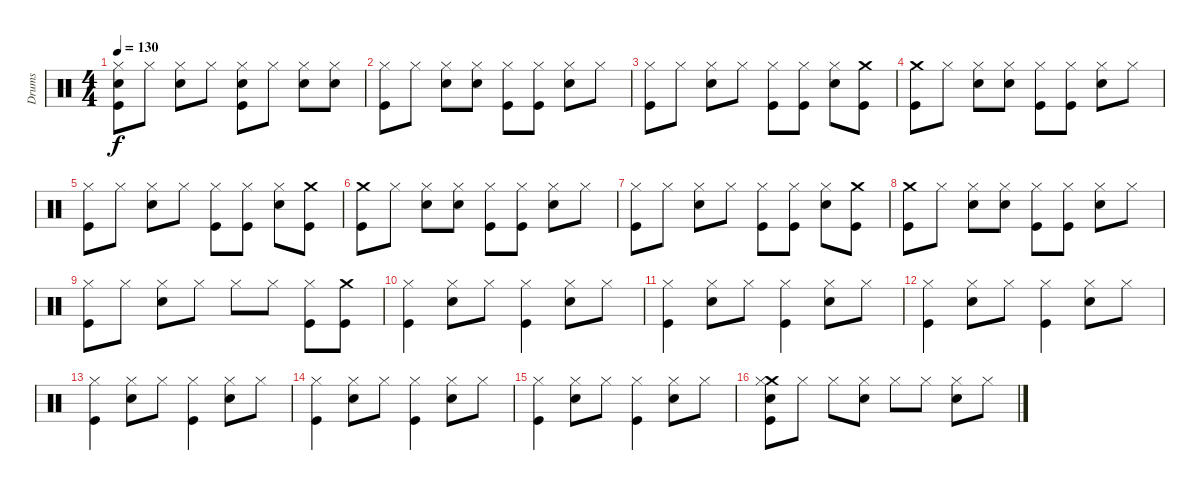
\track ("Drums" "Drums") {instrument percussion}
\staff {score}
\articulation defaults
\ts (4 4)
\tempo 130
\clef neutral
\ks c
("Snare (hit) 2" "Hi-Hat (closed)" "Kick (hit)").8{dy f} "Hi-Hat (closed)".8 ("Snare (hit) 2" "Hi-Hat (closed)").8 "Hi-Hat (closed)".8 ("Snare (hit) 2" "Hi-Hat (closed)" "Kick (hit)").8 "Hi-Hat (closed)".8 ("Snare (hit) 2" "Hi-Hat (closed)").8 ("Snare (hit) 2" "Hi-Hat (closed)").8 |
("Hi-Hat (closed)" "Kick (hit)").8 "Hi-Hat (closed)".8 ("Snare (hit) 2" "Hi-Hat (closed)").8 ("Snare (hit) 2" "Hi-Hat (closed)").8 ("Hi-Hat (closed)" "Kick (hit)").8 ("Hi-Hat (closed)" "Kick (hit)").8 ("Snare (hit) 2" "Hi-Hat (closed)").8 "Hi-Hat (closed)".8 |
("Hi-Hat (closed)" "Kick (hit)").8 "Hi-Hat (closed)".8 ("Snare (hit) 2" "Hi-Hat (closed)").8 "Hi-Hat (closed)".8 ("Hi-Hat (closed)" "Kick (hit)").8 ("Hi-Hat (closed)" "Kick (hit)").8 ("Snare (hit) 2" "Hi-Hat (closed)").8 ("Crash medium (hit)" "Kick (hit)").8 |
("Crash medium (hit)" "Kick (hit)").8 "Hi-Hat (closed)".8 ("Snare (hit) 2" "Hi-Hat (closed)").8 ("Snare (hit) 2" "Hi-Hat (closed)").8 ("Hi-Hat (closed)" "Kick (hit)").8 ("Hi-Hat (closed)" "Kick (hit)").8 ("Snare (hit) 2" "Hi-Hat (closed)").8 "Hi-Hat (closed)".8 |
("Hi-Hat (closed)" "Kick (hit)").8 "Hi-Hat (closed)".8 ("Snare (hit) 2" "Hi-Hat (closed)").8 "Hi-Hat (closed)".8 ("Hi-Hat (closed)" "Kick (hit)").8 ("Hi-Hat (closed)" "Kick (hit)").8 ("Snare (hit) 2" "Hi-Hat (closed)").8 ("Crash medium (hit)" "Kick (hit)").8 |
("Crash medium (hit)" "Kick (hit)").8 "Hi-Hat (closed)".8 ("Snare (hit) 2" "Hi-Hat (closed)").8 ("Snare (hit) 2" "Hi-Hat (closed)").8 ("Hi-Hat (closed)" "Kick (hit)").8 ("Hi-Hat (closed)" "Kick (hit)").8 ("Snare (hit) 2" "Hi-Hat (closed)").8 "Hi-Hat (closed)".8 |
("Hi-Hat (closed)" "Kick (hit)").8 "Hi-Hat (closed)".8 ("Snare (hit) 2" "Hi-Hat (closed)").8 "Hi-Hat (closed)".8 ("Hi-Hat (closed)" "Kick (hit)").8 ("Hi-Hat (closed)" "Kick (hit)").8 ("Snare (hit) 2" "Hi-Hat (closed)").8 ("Crash medium (hit)" "Kick (hit)").8 |
("Crash medium (hit)" "Kick (hit)").8 "Hi-Hat (closed)".8 ("Snare (hit) 2" "Hi-Hat (closed)").8 ("Snare (hit) 2" "Hi-Hat (closed)").8 ("Hi-Hat (closed)" "Kick (hit)").8 ("Hi-Hat (closed)" "Kick (hit)").8 ("Snare (hit) 2" "Hi-Hat (closed)").8 "Hi-Hat (closed)".8 |
("Hi-Hat (closed)" "Kick (hit)").8 "Hi-Hat (closed)".8 ("Snare (hit) 2" "Hi-Hat (closed)").8 "Hi-Hat (closed)".8 "Hi-Hat (closed)".8 "Hi-Hat (closed)".8 ("Hi-Hat (closed)" "Kick (hit)").8 ("Crash medium (hit)" "Kick (hit)").8 |
("Hi-Hat (closed)" "Kick (hit)").4 ("Snare (hit) 2" "Hi-Hat (closed)").8 "Hi-Hat (closed)".8 ("Hi-Hat (closed)" "Kick (hit)").4 ("Snare (hit) 2" "Hi-Hat (closed)").8 "Hi-Hat (closed)".8 |
("Hi-Hat (closed)" "Kick (hit)").4 ("Snare (hit) 2" "Hi-Hat (closed)").8 "Hi-Hat (closed)".8 ("Hi-Hat (closed)" "Kick (hit)").4 ("Snare (hit) 2" "Hi-Hat (closed)").8 "Hi-Hat (closed)".8 |
("Hi-Hat (closed)" "Kick (hit)").4 ("Snare (hit) 2" "Hi-Hat (closed)").8 "Hi-Hat (closed)".8 ("Hi-Hat (closed)" "Kick (hit)").4 ("Snare (hit) 2" "Hi-Hat (closed)").8 "Hi-Hat (closed)".8 |
("Hi-Hat (closed)" "Kick (hit)").4 ("Snare (hit) 2" "Hi-Hat (closed)").8 "Hi-Hat (closed)".8 ("Hi-Hat (closed)" "Kick (hit)").4 ("Snare (hit) 2" "Hi-Hat (closed)").8 "Hi-Hat (closed)".8 |
("Hi-Hat (closed)" "Kick (hit)").4 ("Snare (hit) 2" "Hi-Hat (closed)").8 "Hi-Hat (closed)".8 ("Hi-Hat (closed)" "Kick (hit)").4 ("Snare (hit) 2" "Hi-Hat (closed)").8 "Hi-Hat (closed)".8 |
("Hi-Hat (closed)" "Kick (hit)").4 ("Snare (hit) 2" "Hi-Hat (closed)").8 "Hi-Hat (closed)".8 ("Hi-Hat (closed)" "Kick (hit)").4 ("Snare (hit) 2" "Hi-Hat (closed)").8 "Hi-Hat (closed)".8 |
("Crash medium (hit)" "Snare (hit) 2" "Hi-Hat (closed)" "Kick (hit)").8 "Hi-Hat (closed)".8 "Hi-Hat (closed)".8 ("Snare (hit) 2" "Hi-Hat (closed)").8 "Hi-Hat (closed)".8 "Hi-Hat (closed)".8 ("Snare (hit) 2" "Hi-Hat (closed)").8 "Hi-Hat (closed)".8
